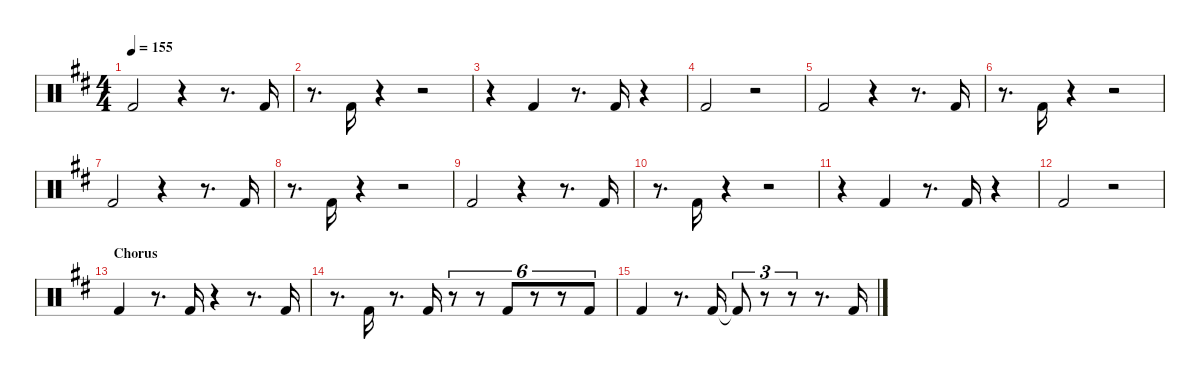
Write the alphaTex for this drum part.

\hideDynamics
\bracketExtendMode nobrackets
\singleTrackTrackNamePolicy hidden
\multiTrackTrackNamePolicy hidden
\otherSystemsTrackNameOrientation horizontal
\track ("Kick" "Drums") {instrument percussion}
\staff {score}
\articulation defaults
\ts (4 4)
\tempo 155
\clef neutral
\ks d "Kick (hit) 2"{acc forcenatural}.2{dy f beam Up}
r.4{beam Up} r.8{d beam Up} "Kick (hit) 2"{acc forcenatural}.16{dy mf beam Up} |
r.8{d beam Down} "Kick (hit) 2"{acc forcenatural}.16{dy f beam Up} r.4{beam Up} r.2{beam Up} |
r.4{beam Down} "Kick (hit) 2"{acc forcenatural}.4{beam Up} r.8{d beam Up} "Kick (hit) 2"{acc forcenatural}.16{dy mf beam Up} r.4{beam Up} |
"Kick (hit) 2"{acc forcenatural}.2{beam Up} r.2{beam Up} |
"Kick (hit) 2"{acc forcenatural}.2{dy f beam Up} r.4{beam Up} r.8{d beam Up} "Kick (hit) 2"{acc forcenatural}.16{dy mf beam Up} |
r.8{d beam Down} "Kick (hit) 2"{acc forcenatural}.16{dy f beam Up} r.4{beam Up} r.2{beam Up} |
"Kick (hit) 2"{acc forcenatural}.2{beam Up} r.4{beam Up} r.8{d beam Up} "Kick (hit) 2"{acc forcenatural}.16{dy mf beam Up} |
r.8{d beam Down} "Kick (hit) 2"{acc forcenatural}.16{dy f beam Up} r.4{beam Up} r.2{beam Up} |
"Kick (hit) 2"{acc forcenatural}.2{beam Up} r.4{beam Up} r.8{d beam Up} "Kick (hit) 2"{acc forcenatural}.16{dy mf beam Up} |
r.8{d beam Down} "Kick (hit) 2"{acc forcenatural}.16{dy f beam Up} r.4{beam Up} r.2{beam Up} |
r.4{beam Down} "Kick (hit) 2"{acc forcenatural}.4{beam Up} r.8{d beam Up} "Kick (hit) 2"{acc forcenatural}.16{dy mf beam Up} r.4{beam Up} |
"Kick (hit) 2"{acc forcenatural}.2{beam Up} r.2{beam Up} |
\section ("" "Chorus")
"Kick (hit) 2"{acc forcenatural}.4{dy f beam Up} r.8{d beam Up} "Kick (hit) 2"{acc forcenatural}.16{dy mp beam Up} r.4{beam Up} r.8{d beam Up} "Kick (hit) 2"{acc forcenatural}.16{dy mf beam Up} |
r.8{d beam Down} "Kick (hit) 2"{acc forcenatural}.16{dy mp beam Up} r.8{d beam Up} "Kick (hit) 2"{acc forcenatural}.16{beam Up} r.8{tu (6 4) beam Up} r.8{tu (6 4) beam Up} "Kick (hit) 2"{acc forcenatural}.8{tu (6 4) beam Up} r.8{tu (6 4) beam Up} r.8{tu (6 4) beam Up} "Kick (hit) 2"{acc forcenatural}.8{tu (6 4) beam Up} |
"Kick (hit) 2"{acc forcenatural}.4{dy f beam Up} r.8{d beam Up} "Kick (hit) 2"{acc forcenatural}.16{dy mf beam Up} "Kick (hit) 2"{t acc forcenatural}.8{tu (3 2) beam Up} r.8{tu (3 2) beam Up} r.8{tu (3 2) beam Up} r.8{d beam Up} "Kick (hit) 2"{acc forcenatural}.16{beam Up}
